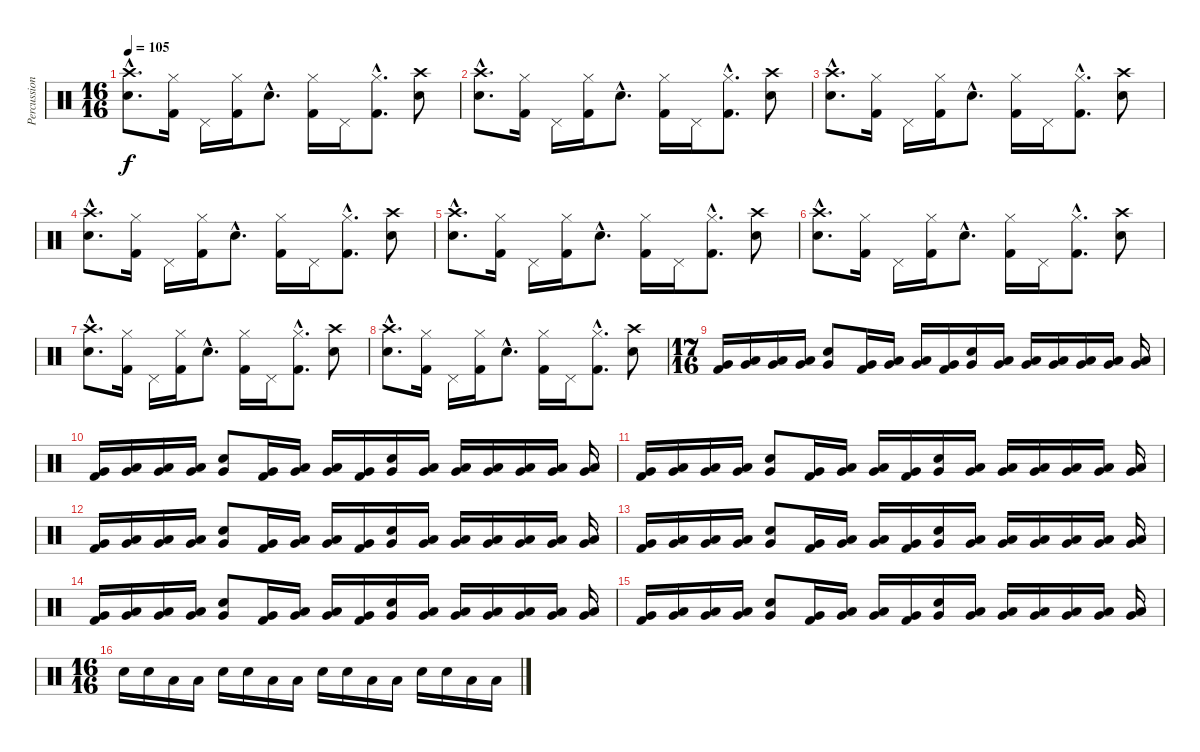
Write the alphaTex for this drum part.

\track ("Percussion" "Percussion") {instrument percussion}
\staff {score}
\articulation defaults
\ts (16 16)
\tempo 105
\clef neutral
\ks c
("Snare (hit) 2"{hac} "Crash high (hit)"{hac}).8{d dy f} ("Kick (hit) 2" "Hi-Hat (closed)").16 "Pedal Hi-Hat (hit)".16 ("Kick (hit) 2" "Hi-Hat (closed)").16 "Snare (hit) 2"{hac}.8{d} ("Kick (hit) 2" "Hi-Hat (closed)").16 "Pedal Hi-Hat (hit)".16 ("Kick (hit) 2"{hac} "Hi-Hat (closed)"{hac}).8{d} ("Snare (hit) 2" "Crash high (hit)").8 |
("Snare (hit) 2"{hac} "Crash high (hit)"{hac}).8{d} ("Kick (hit) 2" "Hi-Hat (closed)").16 "Pedal Hi-Hat (hit)".16 ("Kick (hit) 2" "Hi-Hat (closed)").16 "Snare (hit) 2"{hac}.8{d} ("Kick (hit) 2" "Hi-Hat (closed)").16 "Pedal Hi-Hat (hit)".16 ("Kick (hit) 2"{hac} "Hi-Hat (closed)"{hac}).8{d} ("Snare (hit) 2" "Crash high (hit)").8 |
("Snare (hit) 2"{hac} "Crash high (hit)"{hac}).8{d} ("Kick (hit) 2" "Hi-Hat (closed)").16 "Pedal Hi-Hat (hit)".16 ("Kick (hit) 2" "Hi-Hat (closed)").16 "Snare (hit) 2"{hac}.8{d} ("Kick (hit) 2" "Hi-Hat (closed)").16 "Pedal Hi-Hat (hit)".16 ("Kick (hit) 2"{hac} "Hi-Hat (closed)"{hac}).8{d} ("Snare (hit) 2" "Crash high (hit)").8 |
("Snare (hit) 2"{hac} "Crash high (hit)"{hac}).8{d} ("Kick (hit) 2" "Hi-Hat (closed)").16 "Pedal Hi-Hat (hit)".16 ("Kick (hit) 2" "Hi-Hat (closed)").16 "Snare (hit) 2"{hac}.8{d} ("Kick (hit) 2" "Hi-Hat (closed)").16 "Pedal Hi-Hat (hit)".16 ("Kick (hit) 2"{hac} "Hi-Hat (closed)"{hac}).8{d} ("Snare (hit) 2" "Crash high (hit)").8 |
("Snare (hit) 2"{hac} "Crash high (hit)"{hac}).8{d} ("Kick (hit) 2" "Hi-Hat (closed)").16 "Pedal Hi-Hat (hit)".16 ("Kick (hit) 2" "Hi-Hat (closed)").16 "Snare (hit) 2"{hac}.8{d} ("Kick (hit) 2" "Hi-Hat (closed)").16 "Pedal Hi-Hat (hit)".16 ("Kick (hit) 2"{hac} "Hi-Hat (closed)"{hac}).8{d} ("Snare (hit) 2" "Crash high (hit)").8 |
("Snare (hit) 2"{hac} "Crash high (hit)"{hac}).8{d} ("Kick (hit) 2" "Hi-Hat (closed)").16 "Pedal Hi-Hat (hit)".16 ("Kick (hit) 2" "Hi-Hat (closed)").16 "Snare (hit) 2"{hac}.8{d} ("Kick (hit) 2" "Hi-Hat (closed)").16 "Pedal Hi-Hat (hit)".16 ("Kick (hit) 2"{hac} "Hi-Hat (closed)"{hac}).8{d} ("Snare (hit) 2" "Crash high (hit)").8 |
("Snare (hit) 2"{hac} "Crash high (hit)"{hac}).8{d} ("Kick (hit) 2" "Hi-Hat (closed)").16 "Pedal Hi-Hat (hit)".16 ("Kick (hit) 2" "Hi-Hat (closed)").16 "Snare (hit) 2"{hac}.8{d} ("Kick (hit) 2" "Hi-Hat (closed)").16 "Pedal Hi-Hat (hit)".16 ("Kick (hit) 2"{hac} "Hi-Hat (closed)"{hac}).8{d} ("Snare (hit) 2" "Crash high (hit)").8 |
("Snare (hit) 2"{hac} "Crash high (hit)"{hac}).8{d} ("Kick (hit) 2" "Hi-Hat (closed)").16 "Pedal Hi-Hat (hit)".16 ("Kick (hit) 2" "Hi-Hat (closed)").16 "Snare (hit) 2"{hac}.8{d} ("Kick (hit) 2" "Hi-Hat (closed)").16 "Pedal Hi-Hat (hit)".16 ("Kick (hit) 2"{hac} "Hi-Hat (closed)"{hac}).8{d} ("Snare (hit) 2" "Crash high (hit)").8 |
\ts (17 16)
("Kick (hit) 2" "Very Low Tom (hit)").16 ("Low Floor Tom (hit)" "Very Low Tom (hit)").16 ("Low Floor Tom (hit)" "Very Low Tom (hit)").16 ("Low Floor Tom (hit)" "Very Low Tom (hit)").16 ("Snare (hit) 2" "Very Low Tom (hit)").8 ("Kick (hit) 2" "Very Low Tom (hit)").16 ("Low Floor Tom (hit)" "Very Low Tom (hit)").16 ("Low Floor Tom (hit)" "Very Low Tom (hit)").16 ("Kick (hit) 2" "Very Low Tom (hit)").16 ("Snare (hit) 2" "Very Low Tom (hit)").16 ("Low Floor Tom (hit)" "Very Low Tom (hit)").16 ("Low Floor Tom (hit)" "Very Low Tom (hit)").16 ("Low Floor Tom (hit)" "Very Low Tom (hit)").16 ("Low Floor Tom (hit)" "Very Low Tom (hit)").16 ("Low Floor Tom (hit)" "Very Low Tom (hit)").16 ("Low Floor Tom (hit)" "Very Low Tom (hit)").16 |
("Kick (hit) 2" "Very Low Tom (hit)").16 ("Low Floor Tom (hit)" "Very Low Tom (hit)").16 ("Low Floor Tom (hit)" "Very Low Tom (hit)").16 ("Low Floor Tom (hit)" "Very Low Tom (hit)").16 ("Snare (hit) 2" "Very Low Tom (hit)").8 ("Kick (hit) 2" "Very Low Tom (hit)").16 ("Low Floor Tom (hit)" "Very Low Tom (hit)").16 ("Low Floor Tom (hit)" "Very Low Tom (hit)").16 ("Kick (hit) 2" "Very Low Tom (hit)").16 ("Snare (hit) 2" "Very Low Tom (hit)").16 ("Low Floor Tom (hit)" "Very Low Tom (hit)").16 ("Low Floor Tom (hit)" "Very Low Tom (hit)").16 ("Low Floor Tom (hit)" "Very Low Tom (hit)").16 ("Low Floor Tom (hit)" "Very Low Tom (hit)").16 ("Low Floor Tom (hit)" "Very Low Tom (hit)").16 ("Low Floor Tom (hit)" "Very Low Tom (hit)").16 |
("Kick (hit) 2" "Very Low Tom (hit)").16 ("Low Floor Tom (hit)" "Very Low Tom (hit)").16 ("Low Floor Tom (hit)" "Very Low Tom (hit)").16 ("Low Floor Tom (hit)" "Very Low Tom (hit)").16 ("Snare (hit) 2" "Very Low Tom (hit)").8 ("Kick (hit) 2" "Very Low Tom (hit)").16 ("Low Floor Tom (hit)" "Very Low Tom (hit)").16 ("Low Floor Tom (hit)" "Very Low Tom (hit)").16 ("Kick (hit) 2" "Very Low Tom (hit)").16 ("Snare (hit) 2" "Very Low Tom (hit)").16 ("Low Floor Tom (hit)" "Very Low Tom (hit)").16 ("Low Floor Tom (hit)" "Very Low Tom (hit)").16 ("Low Floor Tom (hit)" "Very Low Tom (hit)").16 ("Low Floor Tom (hit)" "Very Low Tom (hit)").16 ("Low Floor Tom (hit)" "Very Low Tom (hit)").16 ("Low Floor Tom (hit)" "Very Low Tom (hit)").16 |
("Kick (hit) 2" "Very Low Tom (hit)").16 ("Low Floor Tom (hit)" "Very Low Tom (hit)").16 ("Low Floor Tom (hit)" "Very Low Tom (hit)").16 ("Low Floor Tom (hit)" "Very Low Tom (hit)").16 ("Snare (hit) 2" "Very Low Tom (hit)").8 ("Kick (hit) 2" "Very Low Tom (hit)").16 ("Low Floor Tom (hit)" "Very Low Tom (hit)").16 ("Low Floor Tom (hit)" "Very Low Tom (hit)").16 ("Kick (hit) 2" "Very Low Tom (hit)").16 ("Snare (hit) 2" "Very Low Tom (hit)").16 ("Low Floor Tom (hit)" "Very Low Tom (hit)").16 ("Low Floor Tom (hit)" "Very Low Tom (hit)").16 ("Low Floor Tom (hit)" "Very Low Tom (hit)").16 ("Low Floor Tom (hit)" "Very Low Tom (hit)").16 ("Low Floor Tom (hit)" "Very Low Tom (hit)").16 ("Low Floor Tom (hit)" "Very Low Tom (hit)").16 |
("Kick (hit) 2" "Very Low Tom (hit)").16 ("Low Floor Tom (hit)" "Very Low Tom (hit)").16 ("Low Floor Tom (hit)" "Very Low Tom (hit)").16 ("Low Floor Tom (hit)" "Very Low Tom (hit)").16 ("Snare (hit) 2" "Very Low Tom (hit)").8 ("Kick (hit) 2" "Very Low Tom (hit)").16 ("Low Floor Tom (hit)" "Very Low Tom (hit)").16 ("Low Floor Tom (hit)" "Very Low Tom (hit)").16 ("Kick (hit) 2" "Very Low Tom (hit)").16 ("Snare (hit) 2" "Very Low Tom (hit)").16 ("Low Floor Tom (hit)" "Very Low Tom (hit)").16 ("Low Floor Tom (hit)" "Very Low Tom (hit)").16 ("Low Floor Tom (hit)" "Very Low Tom (hit)").16 ("Low Floor Tom (hit)" "Very Low Tom (hit)").16 ("Low Floor Tom (hit)" "Very Low Tom (hit)").16 ("Low Floor Tom (hit)" "Very Low Tom (hit)").16 |
("Kick (hit) 2" "Very Low Tom (hit)").16 ("Low Floor Tom (hit)" "Very Low Tom (hit)").16 ("Low Floor Tom (hit)" "Very Low Tom (hit)").16 ("Low Floor Tom (hit)" "Very Low Tom (hit)").16 ("Snare (hit) 2" "Very Low Tom (hit)").8 ("Kick (hit) 2" "Very Low Tom (hit)").16 ("Low Floor Tom (hit)" "Very Low Tom (hit)").16 ("Low Floor Tom (hit)" "Very Low Tom (hit)").16 ("Kick (hit) 2" "Very Low Tom (hit)").16 ("Snare (hit) 2" "Very Low Tom (hit)").16 ("Low Floor Tom (hit)" "Very Low Tom (hit)").16 ("Low Floor Tom (hit)" "Very Low Tom (hit)").16 ("Low Floor Tom (hit)" "Very Low Tom (hit)").16 ("Low Floor Tom (hit)" "Very Low Tom (hit)").16 ("Low Floor Tom (hit)" "Very Low Tom (hit)").16 ("Low Floor Tom (hit)" "Very Low Tom (hit)").16 |
("Kick (hit) 2" "Very Low Tom (hit)").16 ("Low Floor Tom (hit)" "Very Low Tom (hit)").16 ("Low Floor Tom (hit)" "Very Low Tom (hit)").16 ("Low Floor Tom (hit)" "Very Low Tom (hit)").16 ("Snare (hit) 2" "Very Low Tom (hit)").8 ("Kick (hit) 2" "Very Low Tom (hit)").16 ("Low Floor Tom (hit)" "Very Low Tom (hit)").16 ("Low Floor Tom (hit)" "Very Low Tom (hit)").16 ("Kick (hit) 2" "Very Low Tom (hit)").16 ("Snare (hit) 2" "Very Low Tom (hit)").16 ("Low Floor Tom (hit)" "Very Low Tom (hit)").16 ("Low Floor Tom (hit)" "Very Low Tom (hit)").16 ("Low Floor Tom (hit)" "Very Low Tom (hit)").16 ("Low Floor Tom (hit)" "Very Low Tom (hit)").16 ("Low Floor Tom (hit)" "Very Low Tom (hit)").16 ("Low Floor Tom (hit)" "Very Low Tom (hit)").16 |
\ts (16 16)
"Electric Snare (hit)".16 "Electric Snare (hit)".16 "Low Floor Tom (hit)".16 "Low Floor Tom (hit)".16 "Snare (hit) 2".16 "Snare (hit) 2".16 "Low Floor Tom (hit)".16 "Low Floor Tom (hit)".16 "Electric Snare (hit)".16 "Electric Snare (hit)".16 "Low Floor Tom (hit)".16 "Low Floor Tom (hit)".16 "Snare (hit) 2".16 "Snare (hit) 2".16 "Low Floor Tom (hit)".16 "Low Floor Tom (hit)".16
